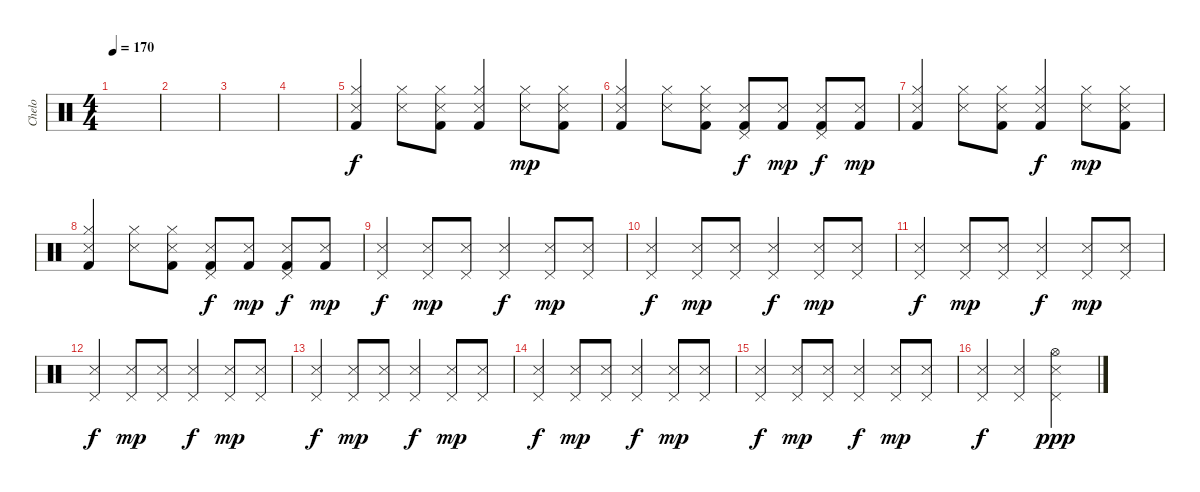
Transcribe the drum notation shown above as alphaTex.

\track ("Chelo" "Chelo") {instrument percussion}
\staff {score}
\articulation defaults
\ts (4 4)
\tempo 170
\clef neutral
\ks c
|
|
|
|
("Kick (hit) 2" "Hi-Hat (closed)" "Snare (side stick) 3").4 ("Snare (side stick) 3" "Hi-Hat (closed)").8 ("Kick (hit) 2" "Hi-Hat (closed)" "Snare (side stick) 3").8 ("Kick (hit) 2" "Hi-Hat (closed)" "Snare (side stick) 3").4{dy f} ("Snare (side stick) 3" "Hi-Hat (closed)").8{dy mp} ("Kick (hit) 2" "Hi-Hat (closed)" "Snare (side stick) 3").8 |
("Kick (hit) 2" "Hi-Hat (closed)" "Snare (side stick) 3").4 ("Snare (side stick) 3" "Hi-Hat (closed)").8 ("Kick (hit) 2" "Hi-Hat (closed)" "Snare (side stick) 3").8 ("Kick (hit) 2" "Pedal Hi-Hat (hit)" "Snare (side stick) 3").8{dy f} ("Kick (hit) 2" "Snare (side stick) 3").8{dy mp} ("Kick (hit) 2" "Pedal Hi-Hat (hit)" "Snare (side stick) 3").8{dy f} ("Kick (hit) 2" "Snare (side stick) 3").8{dy mp} |
("Kick (hit) 2" "Hi-Hat (closed)" "Snare (side stick) 3").4 ("Snare (side stick) 3" "Hi-Hat (closed)").8 ("Kick (hit) 2" "Hi-Hat (closed)" "Snare (side stick) 3").8 ("Kick (hit) 2" "Hi-Hat (closed)" "Snare (side stick) 3").4{dy f} ("Snare (side stick) 3" "Hi-Hat (closed)").8{dy mp} ("Kick (hit) 2" "Hi-Hat (closed)" "Snare (side stick) 3").8 |
("Kick (hit) 2" "Hi-Hat (closed)" "Snare (side stick) 3").4 ("Snare (side stick) 3" "Hi-Hat (closed)").8 ("Kick (hit) 2" "Hi-Hat (closed)" "Snare (side stick) 3").8 ("Kick (hit) 2" "Pedal Hi-Hat (hit)" "Snare (side stick) 3").8{dy f} ("Kick (hit) 2" "Snare (side stick) 3").8{dy mp} ("Kick (hit) 2" "Pedal Hi-Hat (hit)" "Snare (side stick) 3").8{dy f} ("Kick (hit) 2" "Snare (side stick) 3").8{dy mp} |
("Snare (side stick) 3" "Pedal Hi-Hat (hit)").4{dy f} ("Snare (side stick) 3" "Pedal Hi-Hat (hit)").8{dy mp} ("Pedal Hi-Hat (hit)" "Snare (side stick) 3").8 ("Snare (side stick) 3" "Pedal Hi-Hat (hit)").4{dy f} ("Snare (side stick) 3" "Pedal Hi-Hat (hit)").8{dy mp} ("Snare (side stick) 3" "Pedal Hi-Hat (hit)").8 |
("Snare (side stick) 3" "Pedal Hi-Hat (hit)").4{dy f} ("Snare (side stick) 3" "Pedal Hi-Hat (hit)").8{dy mp} ("Pedal Hi-Hat (hit)" "Snare (side stick) 3").8 ("Snare (side stick) 3" "Pedal Hi-Hat (hit)").4{dy f} ("Snare (side stick) 3" "Pedal Hi-Hat (hit)").8{dy mp} ("Snare (side stick) 3" "Pedal Hi-Hat (hit)").8 |
("Snare (side stick) 3" "Pedal Hi-Hat (hit)").4{dy f} ("Snare (side stick) 3" "Pedal Hi-Hat (hit)").8{dy mp} ("Pedal Hi-Hat (hit)" "Snare (side stick) 3").8 ("Snare (side stick) 3" "Pedal Hi-Hat (hit)").4{dy f} ("Snare (side stick) 3" "Pedal Hi-Hat (hit)").8{dy mp} ("Snare (side stick) 3" "Pedal Hi-Hat (hit)").8 |
("Snare (side stick) 3" "Pedal Hi-Hat (hit)").4{dy f} ("Snare (side stick) 3" "Pedal Hi-Hat (hit)").8{dy mp} ("Pedal Hi-Hat (hit)" "Snare (side stick) 3").8 ("Snare (side stick) 3" "Pedal Hi-Hat (hit)").4{dy f} ("Snare (side stick) 3" "Pedal Hi-Hat (hit)").8{dy mp} ("Snare (side stick) 3" "Pedal Hi-Hat (hit)").8 |
("Snare (side stick) 3" "Pedal Hi-Hat (hit)").4{dy f} ("Snare (side stick) 3" "Pedal Hi-Hat (hit)").8{dy mp} ("Pedal Hi-Hat (hit)" "Snare (side stick) 3").8 ("Snare (side stick) 3" "Pedal Hi-Hat (hit)").4{dy f} ("Snare (side stick) 3" "Pedal Hi-Hat (hit)").8{dy mp} ("Snare (side stick) 3" "Pedal Hi-Hat (hit)").8 |
("Snare (side stick) 3" "Pedal Hi-Hat (hit)").4{dy f} ("Snare (side stick) 3" "Pedal Hi-Hat (hit)").8{dy mp} ("Pedal Hi-Hat (hit)" "Snare (side stick) 3").8 ("Snare (side stick) 3" "Pedal Hi-Hat (hit)").4{dy f} ("Snare (side stick) 3" "Pedal Hi-Hat (hit)").8{dy mp} ("Snare (side stick) 3" "Pedal Hi-Hat (hit)").8 |
("Snare (side stick) 3" "Pedal Hi-Hat (hit)").4{dy f} ("Snare (side stick) 3" "Pedal Hi-Hat (hit)").8{dy mp} ("Pedal Hi-Hat (hit)" "Snare (side stick) 3").8 ("Snare (side stick) 3" "Pedal Hi-Hat (hit)").4{dy f} ("Snare (side stick) 3" "Pedal Hi-Hat (hit)").8{dy mp} ("Snare (side stick) 3" "Pedal Hi-Hat (hit)").8 |
("Snare (side stick) 3" "Pedal Hi-Hat (hit)").4{dy f} ("Snare (side stick) 3" "Pedal Hi-Hat (hit)").4 ("Snare (side stick) 3" "Pedal Hi-Hat (hit)" "Hi-Hat (open)").2{dy ppp}
